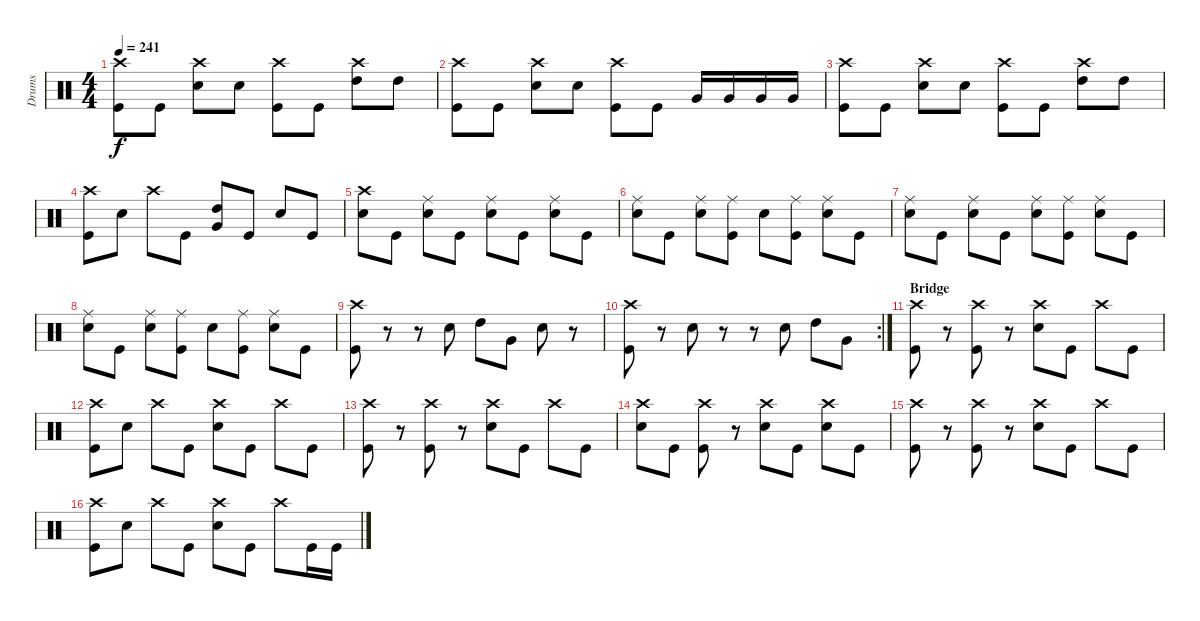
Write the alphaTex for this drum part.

\track ("Drums" "Drums") {instrument percussion}
\staff {score}
\articulation defaults
\ts (4 4)
\tempo 241
\clef neutral
\ks c
("Crash high (hit)" "Kick (hit)").8{dy f} "Kick (hit)".8 ("Crash high (hit)" "Electric Snare (hit)").8 "Electric Snare (hit)".8 ("Crash high (hit)" "Kick (hit)").8 "Kick (hit)".8 ("Crash high (hit)" "High Tom (hit)").8 "High Tom (hit)".8 |
("Crash high (hit)" "Kick (hit)").8 "Kick (hit)".8 ("Crash high (hit)" "Electric Snare (hit)").8 "Electric Snare (hit)".8 ("Crash high (hit)" "Kick (hit)").8 "Kick (hit)".8 "Very Low Tom (hit)".16 "Very Low Tom (hit)".16 "Very Low Tom (hit)".16 "Very Low Tom (hit)".16 |
("Crash high (hit)" "Kick (hit)").8 "Kick (hit)".8 ("Crash high (hit)" "Electric Snare (hit)").8 "Electric Snare (hit)".8 ("Crash high (hit)" "Kick (hit)").8 "Kick (hit)".8 ("Crash high (hit)" "High Tom (hit)").8 "High Tom (hit)".8 |
("Crash high (hit)" "Kick (hit)").8 "Electric Snare (hit)".8 "Crash high (hit)".8 "Kick (hit)".8 ("High Tom (hit)" "Very Low Tom (hit)").8 "Kick (hit)".8 "Electric Snare (hit)".8 "Kick (hit)".8 |
("Crash high (hit)" "Electric Snare (hit)").8 "Kick (hit)".8 ("Ride (middle)" "Electric Snare (hit)").8 "Kick (hit)".8 ("Ride (middle)" "Electric Snare (hit)").8 "Kick (hit)".8 ("Ride (middle)" "Electric Snare (hit)").8 "Kick (hit)".8 |
("Ride (middle)" "Electric Snare (hit)").8 "Kick (hit)".8 ("Ride (middle)" "Electric Snare (hit)").8 ("Ride (middle)" "Kick (hit)").8 "Electric Snare (hit)".8 ("Ride (middle)" "Kick (hit)").8 ("Ride (middle)" "Electric Snare (hit)").8 "Kick (hit)".8 |
("Ride (middle)" "Electric Snare (hit)").8 "Kick (hit)".8 ("Ride (middle)" "Electric Snare (hit)").8 "Kick (hit)".8 ("Ride (middle)" "Electric Snare (hit)").8 ("Ride (middle)" "Kick (hit)").8 ("Ride (middle)" "Electric Snare (hit)").8 "Kick (hit)".8 |
("Ride (middle)" "Electric Snare (hit)").8 "Kick (hit)".8 ("Ride (middle)" "Electric Snare (hit)").8 ("Ride (middle)" "Kick (hit)").8 "Electric Snare (hit)".8 ("Ride (middle)" "Kick (hit)").8 ("Ride (middle)" "Electric Snare (hit)").8 "Kick (hit)".8 |
("Crash high (hit)" "Kick (hit)").8 r.8 r.8 "Electric Snare (hit)".8 "High Tom (hit)".8 "Very Low Tom (hit)".8 "Electric Snare (hit)".8 r.8 |
\rc 2
("Crash high (hit)" "Kick (hit)").8 r.8 "Electric Snare (hit)".8 r.8 r.8 "Electric Snare (hit)".8 "High Tom (hit)".8 "Very Low Tom (hit)".8 |
\section ("" "Bridge")
("Crash high (hit)" "Kick (hit)").8 r.8 ("Crash high (hit)" "Kick (hit)").8 r.8 ("Crash high (hit)" "Electric Snare (hit)").8 "Kick (hit)".8 "Crash high (hit)".8 "Kick (hit)".8 |
("Crash high (hit)" "Kick (hit)").8 "Electric Snare (hit)".8 "Crash high (hit)".8 "Kick (hit)".8 ("Crash high (hit)" "Electric Snare (hit)").8 "Kick (hit)".8 "Crash high (hit)".8 "Kick (hit)".8 |
("Crash high (hit)" "Kick (hit)").8 r.8 ("Crash high (hit)" "Kick (hit)").8 r.8 ("Crash high (hit)" "Electric Snare (hit)").8 "Kick (hit)".8 "Crash high (hit)".8 "Kick (hit)".8 |
("Crash high (hit)" "Electric Snare (hit)").8 "Kick (hit)".8 ("Crash high (hit)" "Kick (hit)").8 r.8 ("Crash high (hit)" "Electric Snare (hit)").8 "Kick (hit)".8 ("Crash high (hit)" "Electric Snare (hit)").8 "Kick (hit)".8 |
("Crash high (hit)" "Kick (hit)").8 r.8 ("Crash high (hit)" "Kick (hit)").8 r.8 ("Crash high (hit)" "Electric Snare (hit)").8 "Kick (hit)".8 "Crash high (hit)".8 "Kick (hit)".8 |
("Crash high (hit)" "Kick (hit)").8 "Electric Snare (hit)".8 "Crash high (hit)".8 "Kick (hit)".8 ("Crash high (hit)" "Electric Snare (hit)").8 "Kick (hit)".8 "Crash high (hit)".8 "Kick (hit)".16 "Kick (hit)".16
